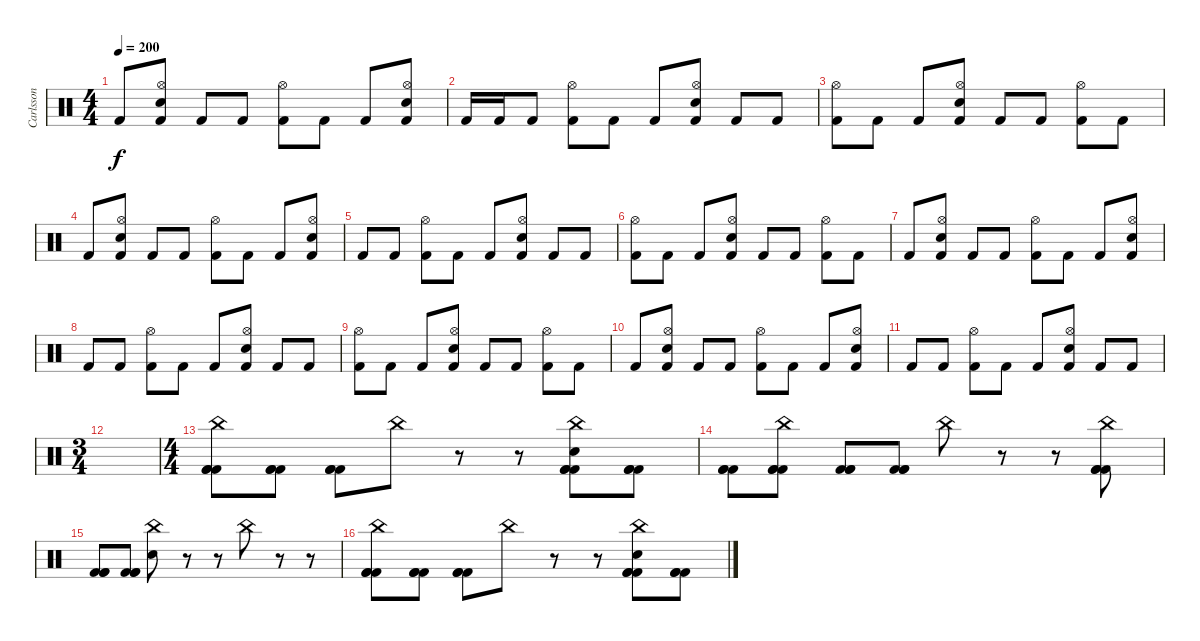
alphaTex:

\track ("Carlsson" "Carlsson") {instrument percussion}
\staff {score}
\articulation defaults
\ts (4 4)
\tempo 200
\clef neutral
\ks c "Kick (hit) 2".8{dy f}
("Hi-Hat (open)" "Snare (hit) 2" "Kick (hit) 2").8 "Kick (hit) 2".8 "Kick (hit) 2".8 ("Hi-Hat (open)" "Kick (hit) 2").8 "Kick (hit) 2".8 "Kick (hit) 2".8 ("Hi-Hat (open)" "Snare (hit) 2" "Kick (hit) 2").8 |
"Kick (hit) 2".16 "Kick (hit) 2".16 "Kick (hit) 2".8 ("Hi-Hat (open)" "Kick (hit) 2").8 "Kick (hit) 2".8 "Kick (hit) 2".8 ("Hi-Hat (open)" "Snare (hit) 2" "Kick (hit) 2").8 "Kick (hit) 2".8 "Kick (hit) 2".8 |
("Hi-Hat (open)" "Kick (hit) 2").8 "Kick (hit) 2".8 "Kick (hit) 2".8 ("Hi-Hat (open)" "Snare (hit) 2" "Kick (hit) 2").8 "Kick (hit) 2".8 "Kick (hit) 2".8 ("Hi-Hat (open)" "Kick (hit) 2").8 "Kick (hit) 2".8 |
"Kick (hit) 2".8 ("Hi-Hat (open)" "Snare (hit) 2" "Kick (hit) 2").8 "Kick (hit) 2".8 "Kick (hit) 2".8 ("Hi-Hat (open)" "Kick (hit) 2").8 "Kick (hit) 2".8 "Kick (hit) 2".8 ("Hi-Hat (open)" "Snare (hit) 2" "Kick (hit) 2").8 |
"Kick (hit) 2".8 "Kick (hit) 2".8 ("Hi-Hat (open)" "Kick (hit) 2").8 "Kick (hit) 2".8 "Kick (hit) 2".8 ("Hi-Hat (open)" "Snare (hit) 2" "Kick (hit) 2").8 "Kick (hit) 2".8 "Kick (hit) 2".8 |
("Hi-Hat (open)" "Kick (hit) 2").8 "Kick (hit) 2".8 "Kick (hit) 2".8 ("Hi-Hat (open)" "Snare (hit) 2" "Kick (hit) 2").8 "Kick (hit) 2".8 "Kick (hit) 2".8 ("Hi-Hat (open)" "Kick (hit) 2").8 "Kick (hit) 2".8 |
"Kick (hit) 2".8 ("Hi-Hat (open)" "Snare (hit) 2" "Kick (hit) 2").8 "Kick (hit) 2".8 "Kick (hit) 2".8 ("Hi-Hat (open)" "Kick (hit) 2").8 "Kick (hit) 2".8 "Kick (hit) 2".8 ("Hi-Hat (open)" "Snare (hit) 2" "Kick (hit) 2").8 |
"Kick (hit) 2".8 "Kick (hit) 2".8 ("Hi-Hat (open)" "Kick (hit) 2").8 "Kick (hit) 2".8 "Kick (hit) 2".8 ("Hi-Hat (open)" "Snare (hit) 2" "Kick (hit) 2").8 "Kick (hit) 2".8 "Kick (hit) 2".8 |
("Hi-Hat (open)" "Kick (hit) 2").8 "Kick (hit) 2".8 "Kick (hit) 2".8 ("Hi-Hat (open)" "Snare (hit) 2" "Kick (hit) 2").8 "Kick (hit) 2".8 "Kick (hit) 2".8 ("Hi-Hat (open)" "Kick (hit) 2").8 "Kick (hit) 2".8 |
"Kick (hit) 2".8 ("Hi-Hat (open)" "Snare (hit) 2" "Kick (hit) 2").8 "Kick (hit) 2".8 "Kick (hit) 2".8 ("Hi-Hat (open)" "Kick (hit) 2").8 "Kick (hit) 2".8 "Kick (hit) 2".8 ("Hi-Hat (open)" "Snare (hit) 2" "Kick (hit) 2").8 |
"Kick (hit) 2".8 "Kick (hit) 2".8 ("Hi-Hat (open)" "Kick (hit) 2").8 "Kick (hit) 2".8 "Kick (hit) 2".8 ("Hi-Hat (open)" "Snare (hit) 2" "Kick (hit) 2").8 "Kick (hit) 2".8 "Kick (hit) 2".8 |
\ts (3 4)
|
\ts (4 4)
("China (hit)" "Kick (hit) 2" "Kick (hit) 2" "Kick (hit) 2").8 ("Kick (hit) 2" "Kick (hit) 2" "Kick (hit) 2").8 ("Kick (hit) 2" "Kick (hit) 2" "Kick (hit) 2").8 "China (hit)".8 r.8 r.8 ("China (hit)" "Snare (hit) 2" "Kick (hit) 2" "Kick (hit) 2" "Kick (hit) 2").8 ("Kick (hit) 2" "Kick (hit) 2" "Kick (hit) 2").8 |
("Kick (hit) 2" "Kick (hit) 2" "Kick (hit) 2").8 ("China (hit)" "Kick (hit) 2" "Kick (hit) 2" "Kick (hit) 2").8 ("Kick (hit) 2" "Kick (hit) 2" "Kick (hit) 2").8 ("Kick (hit) 2" "Kick (hit) 2" "Kick (hit) 2").8 "China (hit)".8 r.8 r.8 ("China (hit)" "Kick (hit) 2" "Kick (hit) 2" "Kick (hit) 2").8 |
("Kick (hit) 2" "Kick (hit) 2" "Kick (hit) 2").8 ("Kick (hit) 2" "Kick (hit) 2" "Kick (hit) 2").8 ("China (hit)" "Snare (hit) 2").8 r.8 r.8 "China (hit)".8 r.8 r.8 |
("China (hit)" "Kick (hit) 2" "Kick (hit) 2" "Kick (hit) 2").8 ("Kick (hit) 2" "Kick (hit) 2" "Kick (hit) 2").8 ("Kick (hit) 2" "Kick (hit) 2" "Kick (hit) 2").8 "China (hit)".8 r.8 r.8 ("China (hit)" "Snare (hit) 2" "Kick (hit) 2" "Kick (hit) 2" "Kick (hit) 2").8 ("Kick (hit) 2" "Kick (hit) 2" "Kick (hit) 2").8
